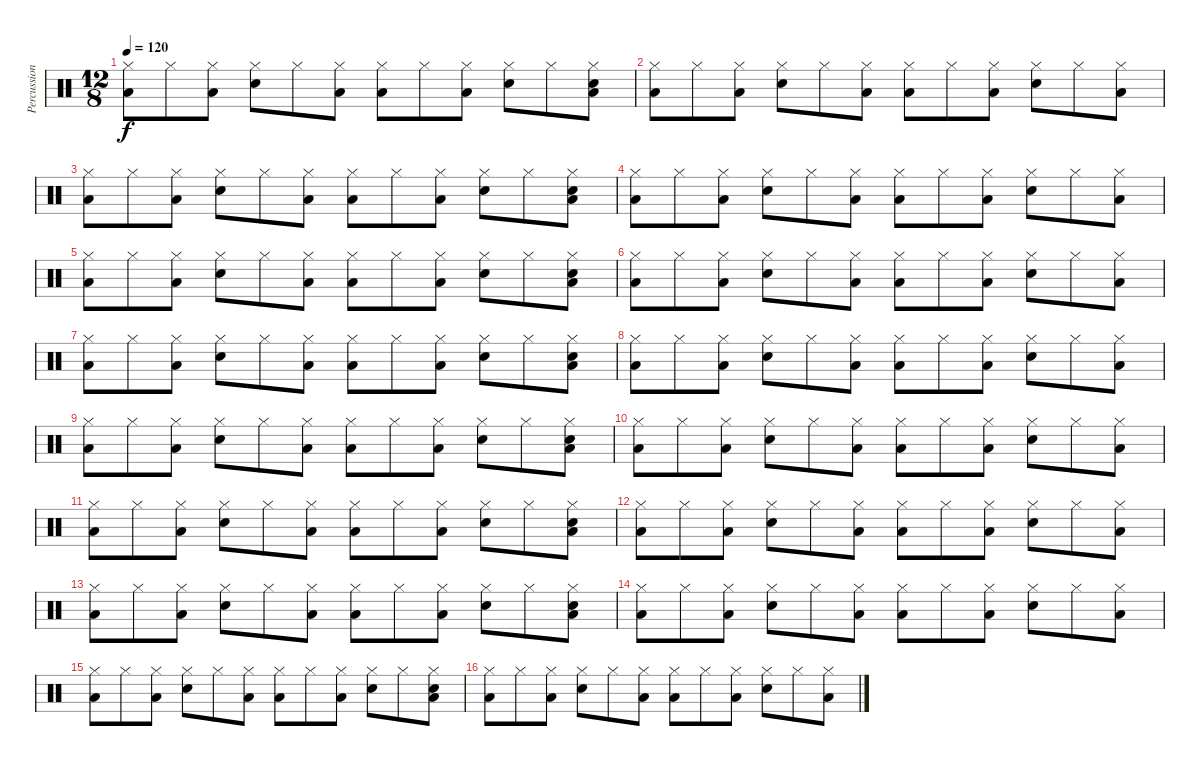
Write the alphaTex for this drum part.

\track ("Percussion" "Percussion") {instrument percussion}
\staff {score}
\articulation defaults
\ts (12 8)
\tempo 120
\clef neutral
\ks c
("Low Tom (hit)" "Hi-Hat (closed)").8{dy f} "Hi-Hat (closed)".8 ("Low Tom (hit)" "Hi-Hat (closed)").8 ("Electric Snare (hit)" "Hi-Hat (closed)").8 "Hi-Hat (closed)".8 ("Low Tom (hit)" "Hi-Hat (closed)").8 ("Low Tom (hit)" "Hi-Hat (closed)").8 "Hi-Hat (closed)".8 ("Low Tom (hit)" "Hi-Hat (closed)").8 ("Electric Snare (hit)" "Hi-Hat (closed)").8 "Hi-Hat (closed)".8 ("Electric Snare (hit)" "Low Tom (hit)" "Hi-Hat (closed)").8 |
("Low Tom (hit)" "Hi-Hat (closed)").8 "Hi-Hat (closed)".8 ("Low Tom (hit)" "Hi-Hat (closed)").8 ("Electric Snare (hit)" "Hi-Hat (closed)").8 "Hi-Hat (closed)".8 ("Low Tom (hit)" "Hi-Hat (closed)").8 ("Low Tom (hit)" "Hi-Hat (closed)").8 "Hi-Hat (closed)".8 ("Low Tom (hit)" "Hi-Hat (closed)").8 ("Electric Snare (hit)" "Hi-Hat (closed)").8 "Hi-Hat (closed)".8 ("Low Tom (hit)" "Hi-Hat (closed)").8 |
("Low Tom (hit)" "Hi-Hat (closed)").8 "Hi-Hat (closed)".8 ("Low Tom (hit)" "Hi-Hat (closed)").8 ("Electric Snare (hit)" "Hi-Hat (closed)").8 "Hi-Hat (closed)".8 ("Low Tom (hit)" "Hi-Hat (closed)").8 ("Low Tom (hit)" "Hi-Hat (closed)").8 "Hi-Hat (closed)".8 ("Low Tom (hit)" "Hi-Hat (closed)").8 ("Electric Snare (hit)" "Hi-Hat (closed)").8 "Hi-Hat (closed)".8 ("Electric Snare (hit)" "Low Tom (hit)" "Hi-Hat (closed)").8 |
("Low Tom (hit)" "Hi-Hat (closed)").8 "Hi-Hat (closed)".8 ("Low Tom (hit)" "Hi-Hat (closed)").8 ("Electric Snare (hit)" "Hi-Hat (closed)").8 "Hi-Hat (closed)".8 ("Low Tom (hit)" "Hi-Hat (closed)").8 ("Low Tom (hit)" "Hi-Hat (closed)").8 "Hi-Hat (closed)".8 ("Low Tom (hit)" "Hi-Hat (closed)").8 ("Electric Snare (hit)" "Hi-Hat (closed)").8 "Hi-Hat (closed)".8 ("Low Tom (hit)" "Hi-Hat (closed)").8 |
("Low Tom (hit)" "Hi-Hat (closed)").8 "Hi-Hat (closed)".8 ("Low Tom (hit)" "Hi-Hat (closed)").8 ("Electric Snare (hit)" "Hi-Hat (closed)").8 "Hi-Hat (closed)".8 ("Low Tom (hit)" "Hi-Hat (closed)").8 ("Low Tom (hit)" "Hi-Hat (closed)").8 "Hi-Hat (closed)".8 ("Low Tom (hit)" "Hi-Hat (closed)").8 ("Electric Snare (hit)" "Hi-Hat (closed)").8 "Hi-Hat (closed)".8 ("Electric Snare (hit)" "Low Tom (hit)" "Hi-Hat (closed)").8 |
("Low Tom (hit)" "Hi-Hat (closed)").8 "Hi-Hat (closed)".8 ("Low Tom (hit)" "Hi-Hat (closed)").8 ("Electric Snare (hit)" "Hi-Hat (closed)").8 "Hi-Hat (closed)".8 ("Low Tom (hit)" "Hi-Hat (closed)").8 ("Low Tom (hit)" "Hi-Hat (closed)").8 "Hi-Hat (closed)".8 ("Low Tom (hit)" "Hi-Hat (closed)").8 ("Electric Snare (hit)" "Hi-Hat (closed)").8 "Hi-Hat (closed)".8 ("Low Tom (hit)" "Hi-Hat (closed)").8 |
("Low Tom (hit)" "Hi-Hat (closed)").8 "Hi-Hat (closed)".8 ("Low Tom (hit)" "Hi-Hat (closed)").8 ("Electric Snare (hit)" "Hi-Hat (closed)").8 "Hi-Hat (closed)".8 ("Low Tom (hit)" "Hi-Hat (closed)").8 ("Low Tom (hit)" "Hi-Hat (closed)").8 "Hi-Hat (closed)".8 ("Low Tom (hit)" "Hi-Hat (closed)").8 ("Electric Snare (hit)" "Hi-Hat (closed)").8 "Hi-Hat (closed)".8 ("Electric Snare (hit)" "Low Tom (hit)" "Hi-Hat (closed)").8 |
("Low Tom (hit)" "Hi-Hat (closed)").8 "Hi-Hat (closed)".8 ("Low Tom (hit)" "Hi-Hat (closed)").8 ("Electric Snare (hit)" "Hi-Hat (closed)").8 "Hi-Hat (closed)".8 ("Low Tom (hit)" "Hi-Hat (closed)").8 ("Low Tom (hit)" "Hi-Hat (closed)").8 "Hi-Hat (closed)".8 ("Low Tom (hit)" "Hi-Hat (closed)").8 ("Electric Snare (hit)" "Hi-Hat (closed)").8 "Hi-Hat (closed)".8 ("Low Tom (hit)" "Hi-Hat (closed)").8 |
("Low Tom (hit)" "Hi-Hat (closed)").8 "Hi-Hat (closed)".8 ("Low Tom (hit)" "Hi-Hat (closed)").8 ("Electric Snare (hit)" "Hi-Hat (closed)").8 "Hi-Hat (closed)".8 ("Low Tom (hit)" "Hi-Hat (closed)").8 ("Low Tom (hit)" "Hi-Hat (closed)").8 "Hi-Hat (closed)".8 ("Low Tom (hit)" "Hi-Hat (closed)").8 ("Electric Snare (hit)" "Hi-Hat (closed)").8 "Hi-Hat (closed)".8 ("Electric Snare (hit)" "Low Tom (hit)" "Hi-Hat (closed)").8 |
("Low Tom (hit)" "Hi-Hat (closed)").8 "Hi-Hat (closed)".8 ("Low Tom (hit)" "Hi-Hat (closed)").8 ("Electric Snare (hit)" "Hi-Hat (closed)").8 "Hi-Hat (closed)".8 ("Low Tom (hit)" "Hi-Hat (closed)").8 ("Low Tom (hit)" "Hi-Hat (closed)").8 "Hi-Hat (closed)".8 ("Low Tom (hit)" "Hi-Hat (closed)").8 ("Electric Snare (hit)" "Hi-Hat (closed)").8 "Hi-Hat (closed)".8 ("Low Tom (hit)" "Hi-Hat (closed)").8 |
("Low Tom (hit)" "Hi-Hat (closed)").8 "Hi-Hat (closed)".8 ("Low Tom (hit)" "Hi-Hat (closed)").8 ("Electric Snare (hit)" "Hi-Hat (closed)").8 "Hi-Hat (closed)".8 ("Low Tom (hit)" "Hi-Hat (closed)").8 ("Low Tom (hit)" "Hi-Hat (closed)").8 "Hi-Hat (closed)".8 ("Low Tom (hit)" "Hi-Hat (closed)").8 ("Electric Snare (hit)" "Hi-Hat (closed)").8 "Hi-Hat (closed)".8 ("Electric Snare (hit)" "Low Tom (hit)" "Hi-Hat (closed)").8 |
("Low Tom (hit)" "Hi-Hat (closed)").8 "Hi-Hat (closed)".8 ("Low Tom (hit)" "Hi-Hat (closed)").8 ("Electric Snare (hit)" "Hi-Hat (closed)").8 "Hi-Hat (closed)".8 ("Low Tom (hit)" "Hi-Hat (closed)").8 ("Low Tom (hit)" "Hi-Hat (closed)").8 "Hi-Hat (closed)".8 ("Low Tom (hit)" "Hi-Hat (closed)").8 ("Electric Snare (hit)" "Hi-Hat (closed)").8 "Hi-Hat (closed)".8 ("Low Tom (hit)" "Hi-Hat (closed)").8 |
("Low Tom (hit)" "Hi-Hat (closed)").8 "Hi-Hat (closed)".8 ("Low Tom (hit)" "Hi-Hat (closed)").8 ("Electric Snare (hit)" "Hi-Hat (closed)").8 "Hi-Hat (closed)".8 ("Low Tom (hit)" "Hi-Hat (closed)").8 ("Low Tom (hit)" "Hi-Hat (closed)").8 "Hi-Hat (closed)".8 ("Low Tom (hit)" "Hi-Hat (closed)").8 ("Electric Snare (hit)" "Hi-Hat (closed)").8 "Hi-Hat (closed)".8 ("Electric Snare (hit)" "Low Tom (hit)" "Hi-Hat (closed)").8 |
("Low Tom (hit)" "Hi-Hat (closed)").8 "Hi-Hat (closed)".8 ("Low Tom (hit)" "Hi-Hat (closed)").8 ("Electric Snare (hit)" "Hi-Hat (closed)").8 "Hi-Hat (closed)".8 ("Low Tom (hit)" "Hi-Hat (closed)").8 ("Low Tom (hit)" "Hi-Hat (closed)").8 "Hi-Hat (closed)".8 ("Low Tom (hit)" "Hi-Hat (closed)").8 ("Electric Snare (hit)" "Hi-Hat (closed)").8 "Hi-Hat (closed)".8 ("Low Tom (hit)" "Hi-Hat (closed)").8 |
("Low Tom (hit)" "Hi-Hat (closed)").8 "Hi-Hat (closed)".8 ("Low Tom (hit)" "Hi-Hat (closed)").8 ("Electric Snare (hit)" "Hi-Hat (closed)").8 "Hi-Hat (closed)".8 ("Low Tom (hit)" "Hi-Hat (closed)").8 ("Low Tom (hit)" "Hi-Hat (closed)").8 "Hi-Hat (closed)".8 ("Low Tom (hit)" "Hi-Hat (closed)").8 ("Electric Snare (hit)" "Hi-Hat (closed)").8 "Hi-Hat (closed)".8 ("Electric Snare (hit)" "Low Tom (hit)" "Hi-Hat (closed)").8 |
("Low Tom (hit)" "Hi-Hat (closed)").8 "Hi-Hat (closed)".8 ("Low Tom (hit)" "Hi-Hat (closed)").8 ("Electric Snare (hit)" "Hi-Hat (closed)").8 "Hi-Hat (closed)".8 ("Low Tom (hit)" "Hi-Hat (closed)").8 ("Low Tom (hit)" "Hi-Hat (closed)").8 "Hi-Hat (closed)".8 ("Low Tom (hit)" "Hi-Hat (closed)").8 ("Electric Snare (hit)" "Hi-Hat (closed)").8 "Hi-Hat (closed)".8 ("Low Tom (hit)" "Hi-Hat (closed)").8
